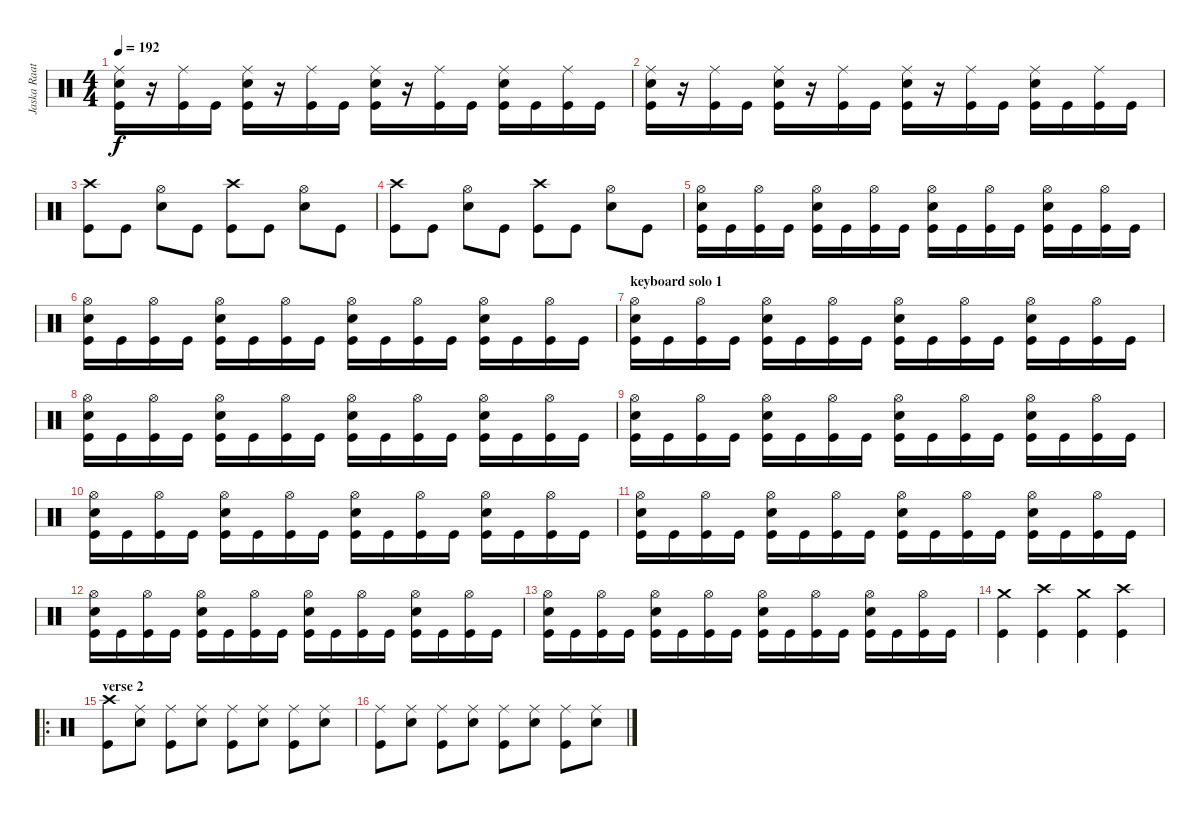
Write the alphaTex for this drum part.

\track ("Jaska Raatikainen" "Jaska Raat") {instrument percussion}
\staff {score}
\articulation defaults
\ts (4 4)
\tempo 192
\clef neutral
\ks c
("Ride (middle)" "Electric Snare (hit)" "Kick (hit)").16{dy f} r.16 ("Ride (middle)" "Kick (hit)").16 "Kick (hit)".16 ("Ride (middle)" "Electric Snare (hit)" "Kick (hit)").16 r.16 ("Ride (middle)" "Kick (hit)").16 "Kick (hit)".16 ("Ride (middle)" "Electric Snare (hit)" "Kick (hit)").16 r.16 ("Ride (middle)" "Kick (hit)").16 "Kick (hit)".16 ("Ride (middle)" "Electric Snare (hit)" "Kick (hit)").16 "Kick (hit)".16 ("Ride (middle)" "Kick (hit)").16 "Kick (hit)".16 |
("Ride (middle)" "Electric Snare (hit)" "Kick (hit)").16 r.16 ("Ride (middle)" "Kick (hit)").16 "Kick (hit)".16 ("Ride (middle)" "Electric Snare (hit)" "Kick (hit)").16 r.16 ("Ride (middle)" "Kick (hit)").16 "Kick (hit)".16 ("Ride (middle)" "Electric Snare (hit)" "Kick (hit)").16 r.16 ("Ride (middle)" "Kick (hit)").16 "Kick (hit)".16 ("Ride (middle)" "Electric Snare (hit)" "Kick (hit)").16 "Kick (hit)".16 ("Ride (middle)" "Kick (hit)").16 "Kick (hit)".16 |
("Crash high (hit)" "Kick (hit)").8 "Kick (hit)".8 ("Hi-Hat (open)" "Electric Snare (hit)").8 "Kick (hit)".8 ("Crash high (hit)" "Kick (hit)").8 "Kick (hit)".8 ("Hi-Hat (open)" "Electric Snare (hit)").8 "Kick (hit)".8 |
("Crash high (hit)" "Kick (hit)").8 "Kick (hit)".8 ("Hi-Hat (open)" "Electric Snare (hit)").8 "Kick (hit)".8 ("Crash high (hit)" "Kick (hit)").8 "Kick (hit)".8 ("Hi-Hat (open)" "Electric Snare (hit)").8 "Kick (hit)".8 |
("Hi-Hat (open)" "Electric Snare (hit)" "Kick (hit)").16 "Kick (hit)".16 ("Hi-Hat (open)" "Kick (hit)").16 "Kick (hit)".16 ("Hi-Hat (open)" "Electric Snare (hit)" "Kick (hit)").16 "Kick (hit)".16 ("Hi-Hat (open)" "Kick (hit)").16 "Kick (hit)".16 ("Hi-Hat (open)" "Electric Snare (hit)" "Kick (hit)").16 "Kick (hit)".16 ("Hi-Hat (open)" "Kick (hit)").16 "Kick (hit)".16 ("Hi-Hat (open)" "Electric Snare (hit)" "Kick (hit)").16 "Kick (hit)".16 ("Hi-Hat (open)" "Kick (hit)").16 "Kick (hit)".16 |
("Hi-Hat (open)" "Electric Snare (hit)" "Kick (hit)").16 "Kick (hit)".16 ("Hi-Hat (open)" "Kick (hit)").16 "Kick (hit)".16 ("Hi-Hat (open)" "Electric Snare (hit)" "Kick (hit)").16 "Kick (hit)".16 ("Hi-Hat (open)" "Kick (hit)").16 "Kick (hit)".16 ("Hi-Hat (open)" "Electric Snare (hit)" "Kick (hit)").16 "Kick (hit)".16 ("Hi-Hat (open)" "Kick (hit)").16 "Kick (hit)".16 ("Hi-Hat (open)" "Electric Snare (hit)" "Kick (hit)").16 "Kick (hit)".16 ("Hi-Hat (open)" "Kick (hit)").16 "Kick (hit)".16 |
\section ("" "keyboard solo 1")
("Hi-Hat (open)" "Electric Snare (hit)" "Kick (hit)").16 "Kick (hit)".16 ("Hi-Hat (open)" "Kick (hit)").16 "Kick (hit)".16 ("Hi-Hat (open)" "Electric Snare (hit)" "Kick (hit)").16 "Kick (hit)".16 ("Hi-Hat (open)" "Kick (hit)").16 "Kick (hit)".16 ("Hi-Hat (open)" "Electric Snare (hit)" "Kick (hit)").16 "Kick (hit)".16 ("Hi-Hat (open)" "Kick (hit)").16 "Kick (hit)".16 ("Hi-Hat (open)" "Electric Snare (hit)" "Kick (hit)").16 "Kick (hit)".16 ("Hi-Hat (open)" "Kick (hit)").16 "Kick (hit)".16 |
("Hi-Hat (open)" "Electric Snare (hit)" "Kick (hit)").16 "Kick (hit)".16 ("Hi-Hat (open)" "Kick (hit)").16 "Kick (hit)".16 ("Hi-Hat (open)" "Electric Snare (hit)" "Kick (hit)").16 "Kick (hit)".16 ("Hi-Hat (open)" "Kick (hit)").16 "Kick (hit)".16 ("Hi-Hat (open)" "Electric Snare (hit)" "Kick (hit)").16 "Kick (hit)".16 ("Hi-Hat (open)" "Kick (hit)").16 "Kick (hit)".16 ("Hi-Hat (open)" "Electric Snare (hit)" "Kick (hit)").16 "Kick (hit)".16 ("Hi-Hat (open)" "Kick (hit)").16 "Kick (hit)".16 |
("Hi-Hat (open)" "Electric Snare (hit)" "Kick (hit)").16 "Kick (hit)".16 ("Hi-Hat (open)" "Kick (hit)").16 "Kick (hit)".16 ("Hi-Hat (open)" "Electric Snare (hit)" "Kick (hit)").16 "Kick (hit)".16 ("Hi-Hat (open)" "Kick (hit)").16 "Kick (hit)".16 ("Hi-Hat (open)" "Electric Snare (hit)" "Kick (hit)").16 "Kick (hit)".16 ("Hi-Hat (open)" "Kick (hit)").16 "Kick (hit)".16 ("Hi-Hat (open)" "Electric Snare (hit)" "Kick (hit)").16 "Kick (hit)".16 ("Hi-Hat (open)" "Kick (hit)").16 "Kick (hit)".16 |
("Hi-Hat (open)" "Electric Snare (hit)" "Kick (hit)").16 "Kick (hit)".16 ("Hi-Hat (open)" "Kick (hit)").16 "Kick (hit)".16 ("Hi-Hat (open)" "Electric Snare (hit)" "Kick (hit)").16 "Kick (hit)".16 ("Hi-Hat (open)" "Kick (hit)").16 "Kick (hit)".16 ("Hi-Hat (open)" "Electric Snare (hit)" "Kick (hit)").16 "Kick (hit)".16 ("Hi-Hat (open)" "Kick (hit)").16 "Kick (hit)".16 ("Hi-Hat (open)" "Electric Snare (hit)" "Kick (hit)").16 "Kick (hit)".16 ("Hi-Hat (open)" "Kick (hit)").16 "Kick (hit)".16 |
("Hi-Hat (open)" "Electric Snare (hit)" "Kick (hit)").16 "Kick (hit)".16 ("Hi-Hat (open)" "Kick (hit)").16 "Kick (hit)".16 ("Hi-Hat (open)" "Electric Snare (hit)" "Kick (hit)").16 "Kick (hit)".16 ("Hi-Hat (open)" "Kick (hit)").16 "Kick (hit)".16 ("Hi-Hat (open)" "Electric Snare (hit)" "Kick (hit)").16 "Kick (hit)".16 ("Hi-Hat (open)" "Kick (hit)").16 "Kick (hit)".16 ("Hi-Hat (open)" "Electric Snare (hit)" "Kick (hit)").16 "Kick (hit)".16 ("Hi-Hat (open)" "Kick (hit)").16 "Kick (hit)".16 |
("Hi-Hat (open)" "Electric Snare (hit)" "Kick (hit)").16 "Kick (hit)".16 ("Hi-Hat (open)" "Kick (hit)").16 "Kick (hit)".16 ("Hi-Hat (open)" "Electric Snare (hit)" "Kick (hit)").16 "Kick (hit)".16 ("Hi-Hat (open)" "Kick (hit)").16 "Kick (hit)".16 ("Hi-Hat (open)" "Electric Snare (hit)" "Kick (hit)").16 "Kick (hit)".16 ("Hi-Hat (open)" "Kick (hit)").16 "Kick (hit)".16 ("Hi-Hat (open)" "Electric Snare (hit)" "Kick (hit)").16 "Kick (hit)".16 ("Hi-Hat (open)" "Kick (hit)").16 "Kick (hit)".16 |
("Hi-Hat (open)" "Electric Snare (hit)" "Kick (hit)").16 "Kick (hit)".16 ("Hi-Hat (open)" "Kick (hit)").16 "Kick (hit)".16 ("Hi-Hat (open)" "Electric Snare (hit)" "Kick (hit)").16 "Kick (hit)".16 ("Hi-Hat (open)" "Kick (hit)").16 "Kick (hit)".16 ("Hi-Hat (open)" "Electric Snare (hit)" "Kick (hit)").16 "Kick (hit)".16 ("Hi-Hat (open)" "Kick (hit)").16 "Kick (hit)".16 ("Hi-Hat (open)" "Electric Snare (hit)" "Kick (hit)").16 "Kick (hit)".16 ("Hi-Hat (open)" "Kick (hit)").16 "Kick (hit)".16 |
("Crash medium (hit)" "Kick (hit)").4 ("Crash high (hit)" "Kick (hit)").4 ("Crash medium (hit)" "Kick (hit)").4 ("Crash high (hit)" "Kick (hit)").4 |
\ro
\section ("" "verse 2")
("Crash high (hit)" "Kick (hit)").8 ("Ride (middle)" "Electric Snare (hit)").8 ("Ride (middle)" "Kick (hit)").8 ("Ride (middle)" "Electric Snare (hit)").8 ("Ride (middle)" "Kick (hit)").8 ("Ride (middle)" "Electric Snare (hit)").8 ("Ride (middle)" "Kick (hit)").8 ("Ride (middle)" "Electric Snare (hit)").8 |
("Ride (middle)" "Kick (hit)").8 ("Ride (middle)" "Electric Snare (hit)").8 ("Ride (middle)" "Kick (hit)").8 ("Ride (middle)" "Electric Snare (hit)").8 ("Ride (middle)" "Kick (hit)").8 ("Ride (middle)" "Electric Snare (hit)").8 ("Ride (middle)" "Kick (hit)").8 ("Ride (middle)" "Electric Snare (hit)").8
